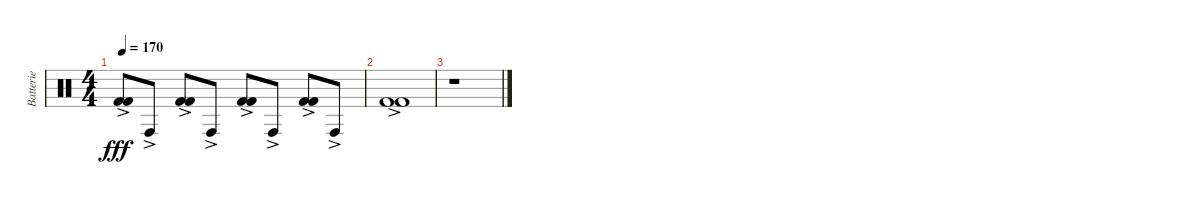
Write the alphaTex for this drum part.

\track ("Batterie" "Batterie") {instrument percussion}
\staff {score}
\articulation defaults
\ts (4 4)
\tempo 170
\clef neutral
\ks c
("Kick (hit) 2"{ac} "Kick (hit) 2"{ac}).8{dy fff} "Conga high (hit)"{ac}.8 ("Kick (hit) 2"{ac} "Kick (hit) 2"{ac}).8 "Conga high (hit)"{ac}.8 ("Kick (hit) 2"{ac} "Kick (hit) 2"{ac}).8 "Conga high (hit)"{ac}.8 ("Kick (hit) 2"{ac} "Kick (hit) 2"{ac}).8 "Conga high (hit)"{ac}.8 |
("Kick (hit) 2"{ac} "Kick (hit) 2"{ac}).1 |
r.1
